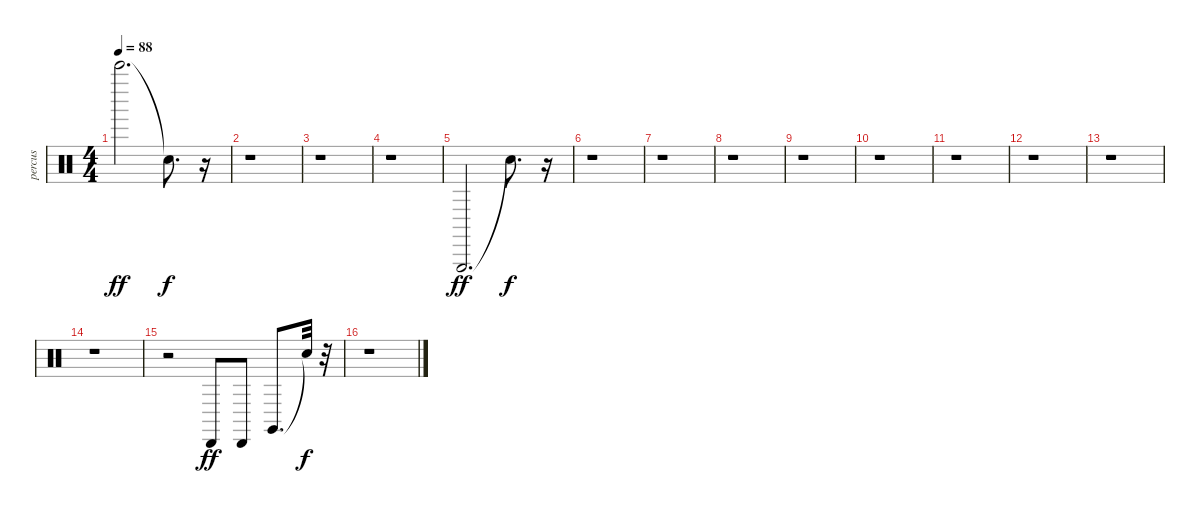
\track ("percus" "percus") {instrument percussion}
\staff {score}
\articulation defaults
\ts (4 4)
\tempo 88
\clef neutral
\ks c "Bell Tree (hit)".2{d dy ff} "Snare (hit)"{t}.8{d dy f}
r.16 |
r.1 |
r.1 |
r.1 |
"Triangle (hit)".2{d dy ff} "Snare (hit)"{t}.8{d dy f} r.16 |
r.1 |
r.1 |
r.1 |
r.1 |
r.1 |
r.1 |
r.1 |
r.1 |
r.1 |
r.2 "Cabasa (hit)".8{dy ff} "Cabasa (hit)".8 "Claves (hit)".8{d} "Snare (hit)"{t}.32{dy f} r.32 |
r.1
